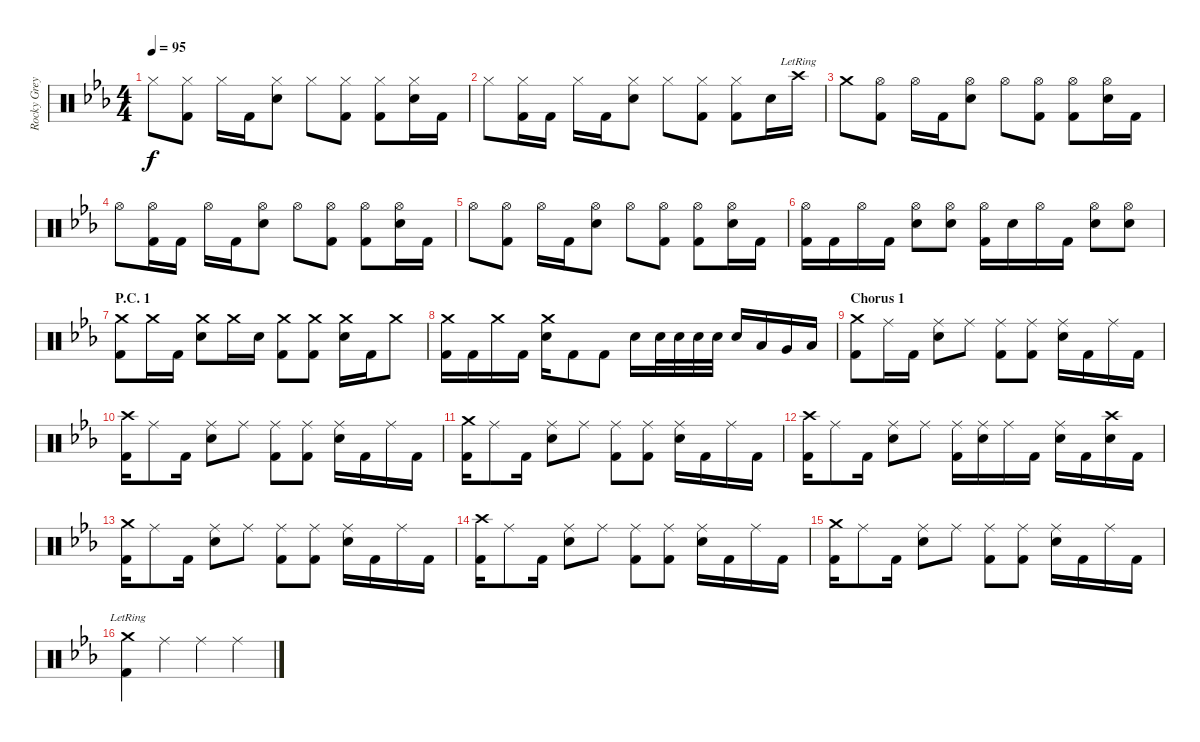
\track ("Rocky Grey" "Rocky Grey") {instrument percussion}
\staff {score}
\articulation defaults
\ts (4 4)
\tempo 95
\clef neutral
\ks eb "Hi-Hat (closed)".8{dy f}
("Hi-Hat (closed)" "Kick (hit) 2").8 "Hi-Hat (closed)".16 "Kick (hit) 2".16 ("Hi-Hat (closed)" "Snare (hit) 2").8 "Hi-Hat (closed)".8 ("Hi-Hat (closed)" "Kick (hit) 2").8 ("Hi-Hat (closed)" "Kick (hit) 2").8 ("Hi-Hat (closed)" "Snare (hit) 2").16 "Kick (hit) 2".16 |
"Hi-Hat (closed)".8 ("Hi-Hat (closed)" "Kick (hit) 2").16 "Kick (hit) 2".16 "Hi-Hat (closed)".16 "Kick (hit) 2".16 ("Hi-Hat (closed)" "Snare (hit) 2").8 "Hi-Hat (closed)".8 ("Hi-Hat (closed)" "Kick (hit) 2").8 ("Hi-Hat (closed)" "Kick (hit) 2").8 "Snare (hit) 2".16 "Crash high (hit)"{lr}.16 |
"Crash medium (hit)".8 ("Hi-Hat (open)" "Kick (hit) 2").8 "Hi-Hat (open)".16 "Kick (hit) 2".16 ("Hi-Hat (open)" "Snare (hit) 2").8 "Hi-Hat (open)".8 ("Hi-Hat (open)" "Kick (hit) 2").8 ("Hi-Hat (open)" "Kick (hit) 2").8 ("Hi-Hat (open)" "Snare (hit) 2").16 "Kick (hit) 2".16 |
"Hi-Hat (open)".8 ("Hi-Hat (open)" "Kick (hit) 2").16 "Kick (hit) 2".16 "Hi-Hat (open)".16 "Kick (hit) 2".16 ("Hi-Hat (open)" "Snare (hit) 2").8 "Hi-Hat (open)".8 ("Hi-Hat (open)" "Kick (hit) 2").8 ("Hi-Hat (open)" "Kick (hit) 2").8 ("Hi-Hat (open)" "Snare (hit) 2").16 "Kick (hit) 2".16 |
"Hi-Hat (open)".8 ("Hi-Hat (open)" "Kick (hit) 2").8 "Hi-Hat (open)".16 "Kick (hit) 2".16 ("Hi-Hat (open)" "Snare (hit) 2").8 "Hi-Hat (open)".8 ("Hi-Hat (open)" "Kick (hit) 2").8 ("Hi-Hat (open)" "Kick (hit) 2").8 ("Hi-Hat (open)" "Snare (hit) 2").16 "Kick (hit) 2".16 |
("Hi-Hat (open)" "Kick (hit) 2").16 "Kick (hit) 2".16 "Hi-Hat (open)".16 "Kick (hit) 2".16 ("Hi-Hat (open)" "Snare (hit) 2").8 ("Hi-Hat (open)" "Snare (hit) 2").8 ("Hi-Hat (open)" "Kick (hit) 2").16 "Snare (hit) 2".16 "Hi-Hat (open)".16 "Kick (hit) 2".16 ("Hi-Hat (open)" "Snare (hit) 2").8 ("Hi-Hat (open)" "Snare (hit) 2").8 |
\section ("" "P.C. 1")
("Crash medium (hit)" "Kick (hit) 2").8 "Crash medium (hit)".16 "Kick (hit) 2".16 ("Crash medium (hit)" "Snare (hit) 2").8 "Crash medium (hit)".16 "Snare (hit) 2".16 ("Crash medium (hit)" "Kick (hit) 2").8 ("Crash medium (hit)" "Kick (hit) 2").8 ("Crash medium (hit)" "Snare (hit) 2").16 "Kick (hit) 2".16 "Crash medium (hit)".8 |
("Crash medium (hit)" "Kick (hit) 2").16 "Kick (hit) 2".16 "Crash medium (hit)".16 "Kick (hit) 2".16 ("Crash medium (hit)" "Snare (hit) 2").16 "Kick (hit) 2".8 "Kick (hit) 2".8 "Snare (hit) 2".16 "Snare (hit) 2".32 "Snare (hit) 2".32 "Snare (hit) 2".32 "Snare (hit) 2".32 "Snare (hit) 2".16 "Low Tom (hit)".16 "Very Low Tom (hit)".16 "Low Floor Tom (hit)".16 |
\section ("" "Chorus 1")
("Crash medium (hit)" "Kick (hit) 2").8 "Ride (middle)".16 "Kick (hit) 2".16 ("Ride (middle)" "Snare (hit) 2").8 "Ride (middle)".8 ("Ride (middle)" "Kick (hit) 2").8 ("Ride (middle)" "Kick (hit) 2").8 ("Ride (middle)" "Snare (hit) 2").16 "Kick (hit) 2".16 "Ride (middle)".16 "Kick (hit) 2".16 |
("Crash high (hit)" "Kick (hit) 2").16 "Ride (middle)".8 "Kick (hit) 2".16 ("Ride (middle)" "Snare (hit) 2").8 "Ride (middle)".8 ("Ride (middle)" "Kick (hit) 2").8 ("Ride (middle)" "Kick (hit) 2").8 ("Ride (middle)" "Snare (hit) 2").16 "Kick (hit) 2".16 "Ride (middle)".16 "Kick (hit) 2".16 |
("Crash medium (hit)" "Kick (hit) 2").16 "Ride (middle)".8 "Kick (hit) 2".16 ("Ride (middle)" "Snare (hit) 2").8 "Ride (middle)".8 ("Ride (middle)" "Kick (hit) 2").8 ("Ride (middle)" "Kick (hit) 2").8 ("Ride (middle)" "Snare (hit) 2").16 "Kick (hit) 2".16 "Ride (middle)".16 "Kick (hit) 2".16 |
("Crash high (hit)" "Kick (hit) 2").16 "Ride (middle)".8 "Kick (hit) 2".16 ("Ride (middle)" "Snare (hit) 2").8 "Ride (middle)".8 ("Ride (middle)" "Kick (hit) 2").16 ("Ride (middle)" "Snare (hit) 2").16 "Ride (middle)".16 "Kick (hit) 2".16 ("Ride (middle)" "Snare (hit) 2").16 "Kick (hit) 2".16 ("Crash high (hit)" "Snare (hit) 2").16 "Kick (hit) 2".16 |
("Crash medium (hit)" "Kick (hit) 2").16 "Ride (middle)".8 "Kick (hit) 2".16 ("Ride (middle)" "Snare (hit) 2").8 "Ride (middle)".8 ("Ride (middle)" "Kick (hit) 2").8 ("Ride (middle)" "Kick (hit) 2").8 ("Ride (middle)" "Snare (hit) 2").16 "Kick (hit) 2".16 "Ride (middle)".16 "Kick (hit) 2".16 |
("Crash high (hit)" "Kick (hit) 2").16 "Ride (middle)".8 "Kick (hit) 2".16 ("Ride (middle)" "Snare (hit) 2").8 "Ride (middle)".8 ("Ride (middle)" "Kick (hit) 2").8 ("Ride (middle)" "Kick (hit) 2").8 ("Ride (middle)" "Snare (hit) 2").16 "Kick (hit) 2".16 "Ride (middle)".16 "Kick (hit) 2".16 |
("Crash medium (hit)" "Kick (hit) 2").16 "Ride (middle)".8 "Kick (hit) 2".16 ("Ride (middle)" "Snare (hit) 2").8 "Ride (middle)".8 ("Ride (middle)" "Kick (hit) 2").8 ("Ride (middle)" "Kick (hit) 2").8 ("Ride (middle)" "Snare (hit) 2").16 "Kick (hit) 2".16 "Ride (middle)".16 "Kick (hit) 2".16 |
("Crash medium (hit)"{lr} "Kick (hit) 2").4 "Ride (middle)".4 "Ride (middle)".4 "Ride (middle)".4
